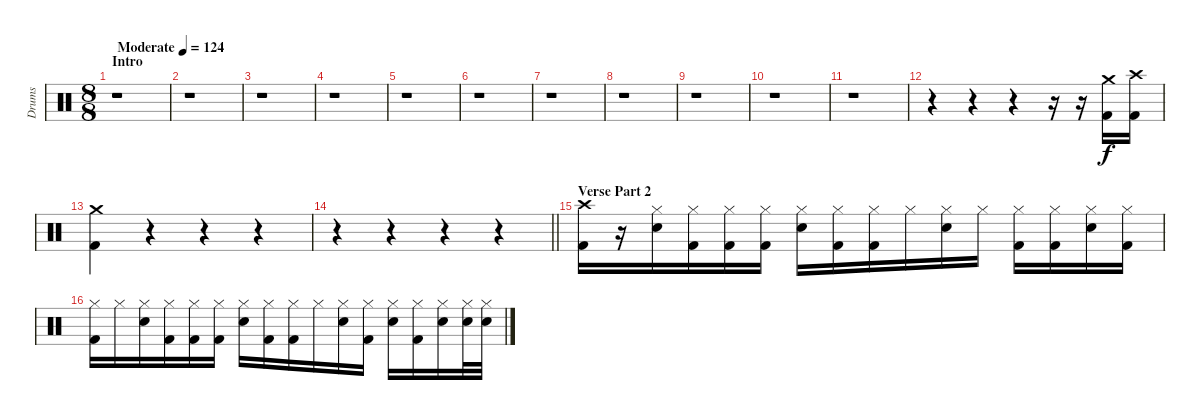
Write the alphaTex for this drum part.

\track ("Drums" "Drums") {instrument percussion}
\staff {score}
\articulation defaults
\ts (8 8)
\section ("" "Intro")
\tempo (124 "Moderate")
\clef neutral
\ks c
r.1{dy f} |
r.1 |
r.1 |
r.1 |
r.1 |
r.1 |
r.1 |
r.1 |
r.1 |
r.1 |
r.1 |
r.4 r.4 r.4 r.16 r.16 ("Crash medium (hit)" "Kick (hit) 2").16 ("Crash high (hit)" "Kick (hit) 2").16 |
("Crash medium (hit)" "Kick (hit) 2").4 r.4 r.4 r.4 |
\barLineRight lightlight
r.4 r.4 r.4 r.4 |
\section ("" "Verse Part 2")
("Crash high (hit)" "Kick (hit) 2").16 r.16 ("Hi-Hat (closed)" "Electric Snare (hit)").16 ("Hi-Hat (closed)" "Kick (hit) 2").16 ("Hi-Hat (closed)" "Kick (hit) 2").16 ("Hi-Hat (closed)" "Kick (hit) 2").16 ("Hi-Hat (closed)" "Electric Snare (hit)").16 ("Hi-Hat (closed)" "Kick (hit) 2").16 ("Hi-Hat (closed)" "Kick (hit) 2").16 "Hi-Hat (closed)".16 ("Hi-Hat (closed)" "Electric Snare (hit)").16 "Hi-Hat (closed)".16 ("Hi-Hat (closed)" "Kick (hit) 2").16 ("Hi-Hat (closed)" "Kick (hit) 2").16 ("Hi-Hat (closed)" "Electric Snare (hit)").16 ("Hi-Hat (closed)" "Kick (hit) 2").16 |
("Hi-Hat (closed)" "Kick (hit) 2").16 "Hi-Hat (closed)".16 ("Hi-Hat (closed)" "Electric Snare (hit)").16 ("Hi-Hat (closed)" "Kick (hit) 2").16 ("Hi-Hat (closed)" "Kick (hit) 2").16 ("Hi-Hat (closed)" "Kick (hit) 2").16 ("Hi-Hat (closed)" "Electric Snare (hit)").16 ("Hi-Hat (closed)" "Kick (hit) 2").16 ("Hi-Hat (closed)" "Kick (hit) 2").16 "Hi-Hat (closed)".16 ("Hi-Hat (closed)" "Electric Snare (hit)").16 ("Hi-Hat (closed)" "Kick (hit) 2").16 ("Hi-Hat (closed)" "Electric Snare (hit)").16 ("Hi-Hat (closed)" "Kick (hit) 2").16 ("Hi-Hat (closed)" "Electric Snare (hit)").16 ("Hi-Hat (closed)" "Electric Snare (hit)").32 ("Hi-Hat (closed)" "Electric Snare (hit)").32
